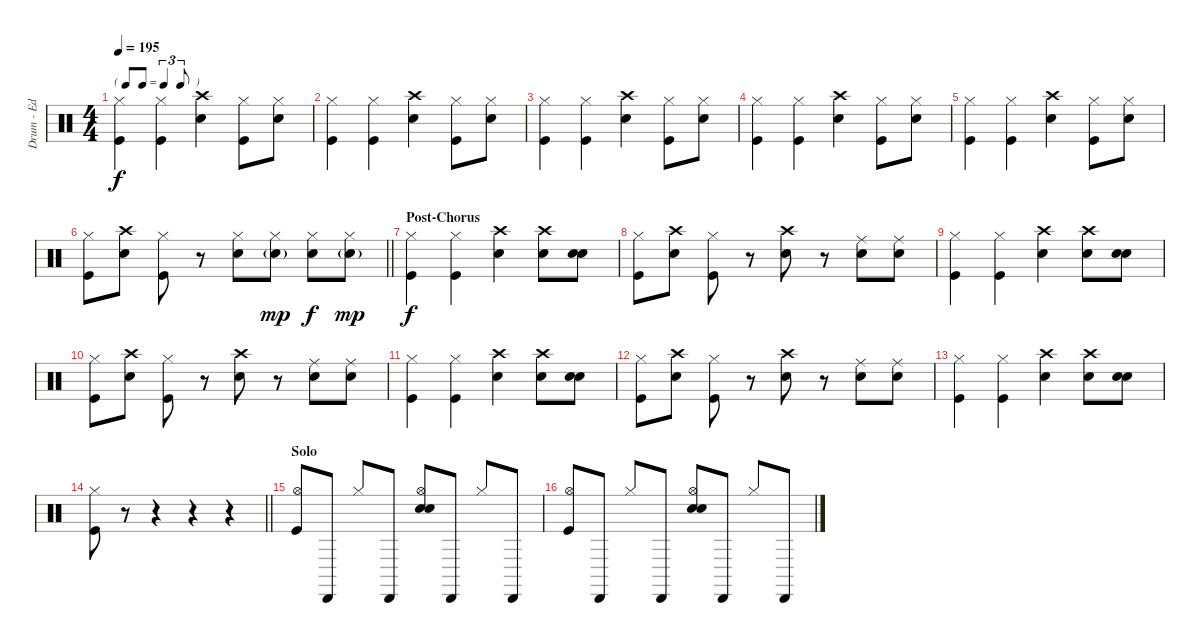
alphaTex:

\track ("Drum - Ed" "Drum - Ed") {instrument percussion}
\staff {score}
\articulation defaults
\ts (4 4)
\tf triplet8th
\tempo 195
\clef neutral
\ks c
("Hi-Hat (closed)" "Kick (hit)").4{dy f} ("Hi-Hat (closed)" "Kick (hit)").4 ("Crash high (hit)" "Electric Snare (hit)").4 ("Hi-Hat (closed)" "Kick (hit)").8 ("Hi-Hat (closed)" "Electric Snare (hit)").8 |
("Hi-Hat (closed)" "Kick (hit)").4 ("Hi-Hat (closed)" "Kick (hit)").4 ("Crash high (hit)" "Electric Snare (hit)").4 ("Hi-Hat (closed)" "Kick (hit)").8 ("Hi-Hat (closed)" "Electric Snare (hit)").8 |
("Hi-Hat (closed)" "Kick (hit)").4 ("Hi-Hat (closed)" "Kick (hit)").4 ("Crash high (hit)" "Electric Snare (hit)").4 ("Hi-Hat (closed)" "Kick (hit)").8 ("Hi-Hat (closed)" "Electric Snare (hit)").8 |
("Hi-Hat (closed)" "Kick (hit)").4 ("Hi-Hat (closed)" "Kick (hit)").4 ("Crash high (hit)" "Electric Snare (hit)").4 ("Hi-Hat (closed)" "Kick (hit)").8 ("Hi-Hat (closed)" "Electric Snare (hit)").8 |
("Hi-Hat (closed)" "Kick (hit)").4 ("Hi-Hat (closed)" "Kick (hit)").4 ("Crash high (hit)" "Electric Snare (hit)").4 ("Hi-Hat (closed)" "Kick (hit)").8 ("Hi-Hat (closed)" "Electric Snare (hit)").8 |
\barLineRight lightlight
("Hi-Hat (closed)" "Kick (hit)").8 ("Crash high (hit)" "Electric Snare (hit)").8 ("Hi-Hat (closed)" "Kick (hit)").8 r.8 ("Hi-Hat (closed)" "Electric Snare (hit)").8 ("Hi-Hat (closed)" "Electric Snare (hit)"{g}).8{dy mp} ("Hi-Hat (closed)" "Electric Snare (hit)").8{dy f} ("Hi-Hat (closed)" "Electric Snare (hit)"{g}).8{dy mp} |
\section ("" "Post-Chorus")
("Hi-Hat (closed)" "Kick (hit)").4{dy f} ("Hi-Hat (closed)" "Kick (hit)").4 ("Crash high (hit)" "Electric Snare (hit)").4 ("Crash high (hit)" "Electric Snare (hit)").8 ("Hand Clap (hit)" "Electric Snare (hit)").8 |
("Hi-Hat (closed)" "Kick (hit)").8 ("Crash high (hit)" "Electric Snare (hit)").8 ("Hi-Hat (closed)" "Kick (hit)").8 r.8 ("Crash high (hit)" "Electric Snare (hit)").8 r.8 ("Ride (middle)" "Electric Snare (hit)").8 ("Ride (middle)" "Electric Snare (hit)").8 |
("Hi-Hat (closed)" "Kick (hit)").4 ("Hi-Hat (closed)" "Kick (hit)").4 ("Crash high (hit)" "Electric Snare (hit)").4 ("Crash high (hit)" "Electric Snare (hit)").8 ("Hand Clap (hit)" "Electric Snare (hit)").8 |
("Hi-Hat (closed)" "Kick (hit)").8 ("Crash high (hit)" "Electric Snare (hit)").8 ("Hi-Hat (closed)" "Kick (hit)").8 r.8 ("Crash high (hit)" "Electric Snare (hit)").8 r.8 ("Ride (middle)" "Electric Snare (hit)").8 ("Ride (middle)" "Electric Snare (hit)").8 |
("Hi-Hat (closed)" "Kick (hit)").4 ("Hi-Hat (closed)" "Kick (hit)").4 ("Crash high (hit)" "Electric Snare (hit)").4 ("Crash high (hit)" "Electric Snare (hit)").8 ("Hand Clap (hit)" "Electric Snare (hit)").8 |
("Hi-Hat (closed)" "Kick (hit)").8 ("Crash high (hit)" "Electric Snare (hit)").8 ("Hi-Hat (closed)" "Kick (hit)").8 r.8 ("Crash high (hit)" "Electric Snare (hit)").8 r.8 ("Ride (middle)" "Electric Snare (hit)").8 ("Ride (middle)" "Electric Snare (hit)").8 |
("Hi-Hat (closed)" "Kick (hit)").4 ("Hi-Hat (closed)" "Kick (hit)").4 ("Crash high (hit)" "Electric Snare (hit)").4 ("Crash high (hit)" "Electric Snare (hit)").8 ("Hand Clap (hit)" "Electric Snare (hit)").8 |
\barLineRight lightlight
("Hi-Hat (closed)" "Kick (hit)").8 r.8 r.4 r.4 r.4 |
\section ("" "Solo")
("Hi-Hat (open)" "Kick (hit)").8 "Cabasa (hit)".8 "Hi-Hat (closed)".8 "Cabasa (hit)".8 ("Hi-Hat (open)" "Hand Clap (hit)" "Electric Snare (hit)").8 "Cabasa (hit)".8 "Hi-Hat (closed)".8 "Cabasa (hit)".8 |
("Hi-Hat (open)" "Kick (hit)").8 "Cabasa (hit)".8 "Hi-Hat (closed)".8 "Cabasa (hit)".8 ("Hi-Hat (open)" "Hand Clap (hit)" "Electric Snare (hit)").8 "Cabasa (hit)".8 "Hi-Hat (closed)".8 "Cabasa (hit)".8
